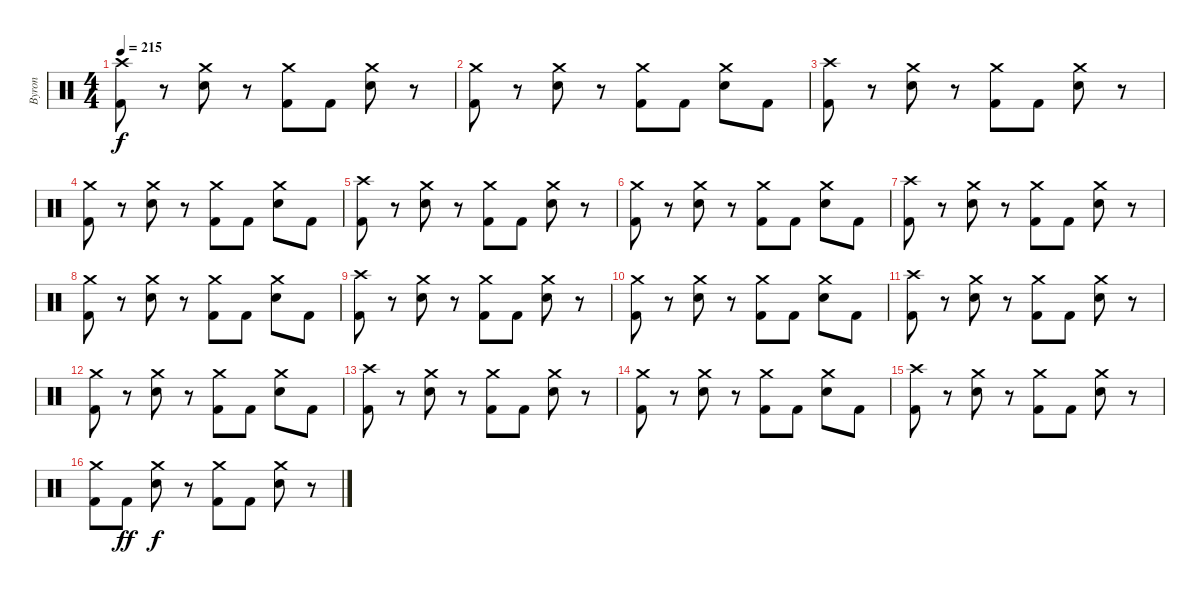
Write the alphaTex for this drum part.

\track ("Byron" "Byron") {instrument percussion}
\staff {score}
\articulation defaults
\ts (4 4)
\tempo 215
\clef neutral
\ks c
("Crash high (hit)" "Kick (hit) 2").8{dy f} r.8 ("Crash medium (hit)" "Electric Snare (hit)").8 r.8 ("Crash medium (hit)" "Kick (hit) 2").8 "Kick (hit) 2".8 ("Crash medium (hit)" "Electric Snare (hit)").8 r.8 |
("Crash medium (hit)" "Kick (hit) 2").8 r.8 ("Crash medium (hit)" "Electric Snare (hit)").8 r.8 ("Crash medium (hit)" "Kick (hit) 2").8 "Kick (hit) 2".8 ("Crash medium (hit)" "Electric Snare (hit)").8 "Kick (hit) 2".8 |
("Crash high (hit)" "Kick (hit) 2").8 r.8 ("Crash medium (hit)" "Electric Snare (hit)").8 r.8 ("Crash medium (hit)" "Kick (hit) 2").8 "Kick (hit) 2".8 ("Crash medium (hit)" "Electric Snare (hit)").8 r.8 |
("Crash medium (hit)" "Kick (hit) 2").8 r.8 ("Crash medium (hit)" "Electric Snare (hit)").8 r.8 ("Crash medium (hit)" "Kick (hit) 2").8 "Kick (hit) 2".8 ("Crash medium (hit)" "Electric Snare (hit)").8 "Kick (hit) 2".8 |
("Crash high (hit)" "Kick (hit) 2").8 r.8 ("Crash medium (hit)" "Electric Snare (hit)").8 r.8 ("Crash medium (hit)" "Kick (hit) 2").8 "Kick (hit) 2".8 ("Crash medium (hit)" "Electric Snare (hit)").8 r.8 |
("Crash medium (hit)" "Kick (hit) 2").8 r.8 ("Crash medium (hit)" "Electric Snare (hit)").8 r.8 ("Crash medium (hit)" "Kick (hit) 2").8 "Kick (hit) 2".8 ("Crash medium (hit)" "Electric Snare (hit)").8 "Kick (hit) 2".8 |
("Crash high (hit)" "Kick (hit) 2").8 r.8 ("Crash medium (hit)" "Electric Snare (hit)").8 r.8 ("Crash medium (hit)" "Kick (hit) 2").8 "Kick (hit) 2".8 ("Crash medium (hit)" "Electric Snare (hit)").8 r.8 |
("Crash medium (hit)" "Kick (hit) 2").8 r.8 ("Crash medium (hit)" "Electric Snare (hit)").8 r.8 ("Crash medium (hit)" "Kick (hit) 2").8 "Kick (hit) 2".8 ("Crash medium (hit)" "Electric Snare (hit)").8 "Kick (hit) 2".8 |
("Crash high (hit)" "Kick (hit) 2").8 r.8 ("Crash medium (hit)" "Electric Snare (hit)").8 r.8 ("Crash medium (hit)" "Kick (hit) 2").8 "Kick (hit) 2".8 ("Crash medium (hit)" "Electric Snare (hit)").8 r.8 |
("Crash medium (hit)" "Kick (hit) 2").8 r.8 ("Crash medium (hit)" "Electric Snare (hit)").8 r.8 ("Crash medium (hit)" "Kick (hit) 2").8 "Kick (hit) 2".8 ("Crash medium (hit)" "Electric Snare (hit)").8 "Kick (hit) 2".8 |
("Crash high (hit)" "Kick (hit) 2").8 r.8 ("Crash medium (hit)" "Electric Snare (hit)").8 r.8 ("Crash medium (hit)" "Kick (hit) 2").8 "Kick (hit) 2".8 ("Crash medium (hit)" "Electric Snare (hit)").8 r.8 |
("Crash medium (hit)" "Kick (hit) 2").8 r.8 ("Crash medium (hit)" "Electric Snare (hit)").8 r.8 ("Crash medium (hit)" "Kick (hit) 2").8 "Kick (hit) 2".8 ("Crash medium (hit)" "Electric Snare (hit)").8 "Kick (hit) 2".8 |
("Crash high (hit)" "Kick (hit) 2").8 r.8 ("Crash medium (hit)" "Electric Snare (hit)").8 r.8 ("Crash medium (hit)" "Kick (hit) 2").8 "Kick (hit) 2".8 ("Crash medium (hit)" "Electric Snare (hit)").8 r.8 |
("Crash medium (hit)" "Kick (hit) 2").8 r.8 ("Crash medium (hit)" "Electric Snare (hit)").8 r.8 ("Crash medium (hit)" "Kick (hit) 2").8 "Kick (hit) 2".8 ("Crash medium (hit)" "Electric Snare (hit)").8 "Kick (hit) 2".8 |
("Crash high (hit)" "Kick (hit) 2").8 r.8 ("Crash medium (hit)" "Electric Snare (hit)").8 r.8 ("Crash medium (hit)" "Kick (hit) 2").8 "Kick (hit) 2".8 ("Crash medium (hit)" "Electric Snare (hit)").8 r.8 |
("Crash medium (hit)" "Kick (hit) 2").8 "Kick (hit) 2".8{dy ff} ("Crash medium (hit)" "Electric Snare (hit)").8{dy f} r.8 ("Crash medium (hit)" "Kick (hit) 2").8 "Kick (hit) 2".8 ("Crash medium (hit)" "Electric Snare (hit)").8 r.8
